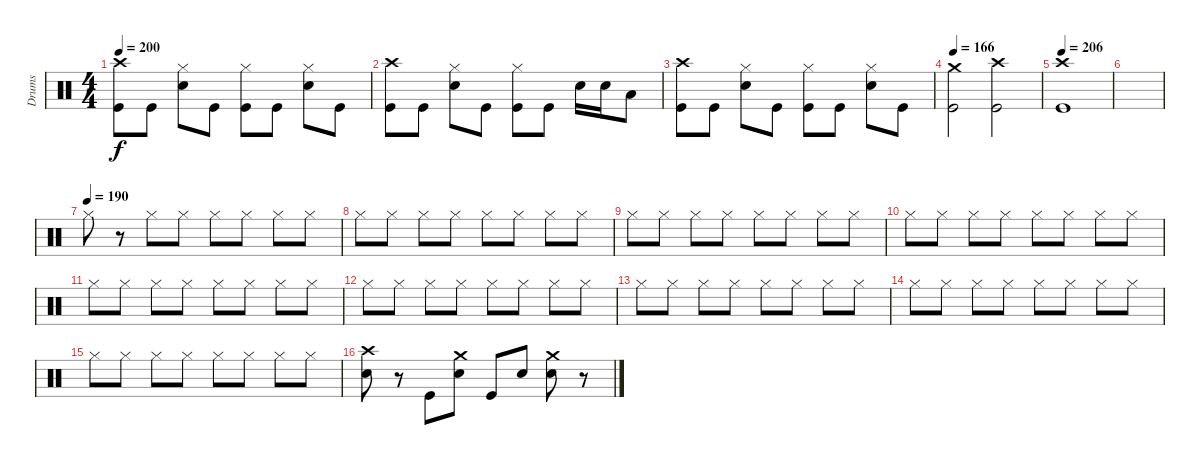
\track ("Drums" "Drums") {instrument percussion}
\staff {score}
\articulation defaults
\ts (4 4)
\tempo 200
\clef neutral
\ks c
("Crash high (hit)" "Kick (hit)").8{dy f} "Kick (hit)".8 ("Hi-Hat (closed)" "Snare (hit) 2").8 "Kick (hit)".8 ("Hi-Hat (closed)" "Kick (hit)").8 "Kick (hit)".8 ("Hi-Hat (closed)" "Snare (hit) 2").8 "Kick (hit)".8 |
("Crash high (hit)" "Kick (hit)").8 "Kick (hit)".8 ("Hi-Hat (closed)" "Snare (hit) 2").8 "Kick (hit)".8 ("Hi-Hat (closed)" "Kick (hit)").8 "Kick (hit)".8 "Snare (hit) 2".16 "Snare (hit) 2".16 "Low Tom (hit)".8 |
("Crash high (hit)" "Kick (hit)").8 "Kick (hit)".8 ("Hi-Hat (closed)" "Snare (hit) 2").8 "Kick (hit)".8 ("Hi-Hat (closed)" "Kick (hit)").8 "Kick (hit)".8 ("Hi-Hat (closed)" "Snare (hit) 2").8 "Kick (hit)".8 |
\tempo 166
("Crash medium (hit)" "Kick (hit)").2 ("Crash high (hit)" "Kick (hit)").2 |
\tempo 206
("Crash high (hit)" "Kick (hit)").1 |
|
\tempo (190)
"Hi-Hat (closed)".8 r.8 "Hi-Hat (closed)".8 "Hi-Hat (closed)".8 "Hi-Hat (closed)".8 "Hi-Hat (closed)".8 "Hi-Hat (closed)".8 "Hi-Hat (closed)".8 |
"Hi-Hat (closed)".8 "Hi-Hat (closed)".8 "Hi-Hat (closed)".8 "Hi-Hat (closed)".8 "Hi-Hat (closed)".8 "Hi-Hat (closed)".8 "Hi-Hat (closed)".8 "Hi-Hat (closed)".8 |
"Hi-Hat (closed)".8 "Hi-Hat (closed)".8 "Hi-Hat (closed)".8 "Hi-Hat (closed)".8 "Hi-Hat (closed)".8 "Hi-Hat (closed)".8 "Hi-Hat (closed)".8 "Hi-Hat (closed)".8 |
"Hi-Hat (closed)".8 "Hi-Hat (closed)".8 "Hi-Hat (closed)".8 "Hi-Hat (closed)".8 "Hi-Hat (closed)".8 "Hi-Hat (closed)".8 "Hi-Hat (closed)".8 "Hi-Hat (closed)".8 |
"Hi-Hat (closed)".8 "Hi-Hat (closed)".8 "Hi-Hat (closed)".8 "Hi-Hat (closed)".8 "Hi-Hat (closed)".8 "Hi-Hat (closed)".8 "Hi-Hat (closed)".8 "Hi-Hat (closed)".8 |
"Hi-Hat (closed)".8 "Hi-Hat (closed)".8 "Hi-Hat (closed)".8 "Hi-Hat (closed)".8 "Hi-Hat (closed)".8 "Hi-Hat (closed)".8 "Hi-Hat (closed)".8 "Hi-Hat (closed)".8 |
"Hi-Hat (closed)".8 "Hi-Hat (closed)".8 "Hi-Hat (closed)".8 "Hi-Hat (closed)".8 "Hi-Hat (closed)".8 "Hi-Hat (closed)".8 "Hi-Hat (closed)".8 "Hi-Hat (closed)".8 |
"Hi-Hat (closed)".8 "Hi-Hat (closed)".8 "Hi-Hat (closed)".8 "Hi-Hat (closed)".8 "Hi-Hat (closed)".8 "Hi-Hat (closed)".8 "Hi-Hat (closed)".8 "Hi-Hat (closed)".8 |
"Hi-Hat (closed)".8 "Hi-Hat (closed)".8 "Hi-Hat (closed)".8 "Hi-Hat (closed)".8 "Hi-Hat (closed)".8 "Hi-Hat (closed)".8 "Hi-Hat (closed)".8 "Hi-Hat (closed)".8 |
("Crash high (hit)" "Snare (hit) 2").8 r.8 "Kick (hit)".8 ("Crash medium (hit)" "Snare (hit) 2").8 "Kick (hit)".8 "Snare (hit) 2".8 ("Crash medium (hit)" "Snare (hit) 2").8 r.8
